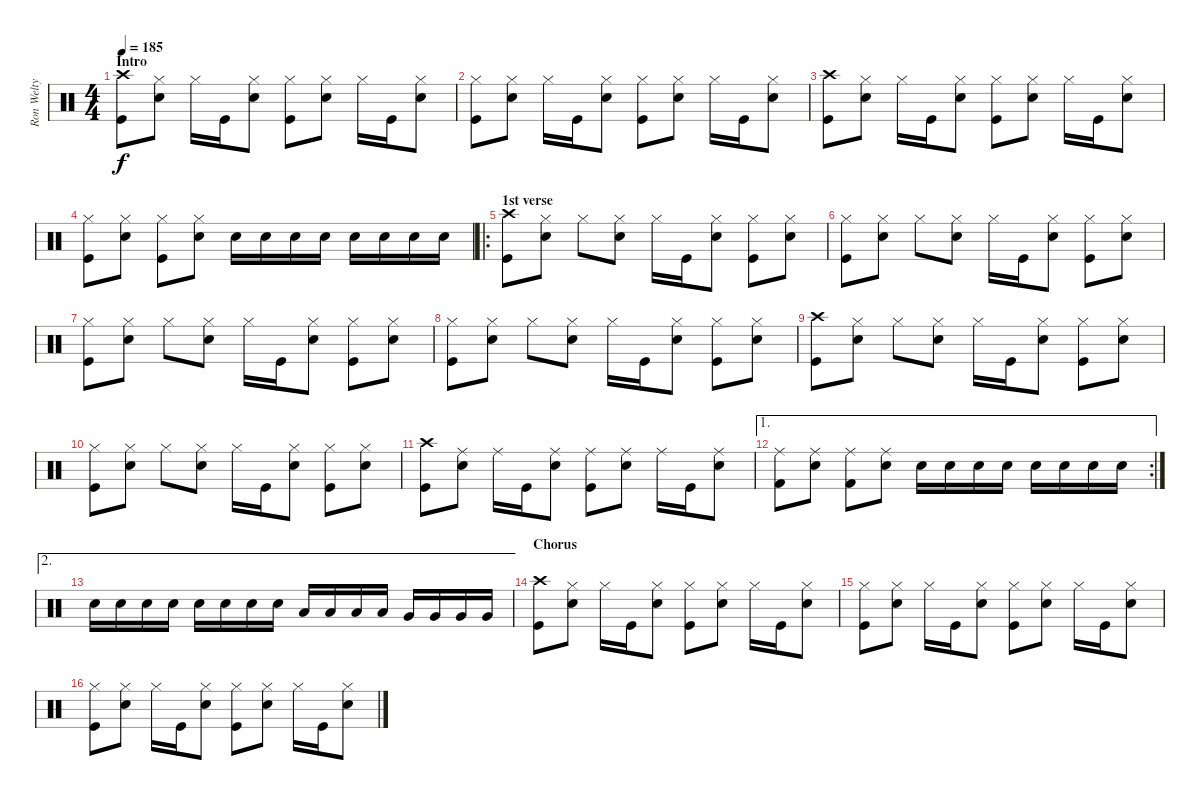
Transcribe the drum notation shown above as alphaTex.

\track ("Ron Welty" "Ron Welty") {instrument percussion}
\staff {score}
\articulation defaults
\ts (4 4)
\section ("" "Intro")
\tempo 185
\clef neutral
\ks c
("Crash high (hit)" "Kick (hit)").8{dy f} ("Hi-Hat (closed)" "Electric Snare (hit)").8 "Hi-Hat (closed)".16 "Kick (hit)".16 ("Hi-Hat (closed)" "Electric Snare (hit)").8 ("Hi-Hat (closed)" "Kick (hit)").8 ("Hi-Hat (closed)" "Electric Snare (hit)").8 "Hi-Hat (closed)".16 "Kick (hit)".16 ("Hi-Hat (closed)" "Electric Snare (hit)").8 |
("Hi-Hat (closed)" "Kick (hit)").8 ("Hi-Hat (closed)" "Electric Snare (hit)").8 "Hi-Hat (closed)".16 "Kick (hit)".16 ("Hi-Hat (closed)" "Electric Snare (hit)").8 ("Hi-Hat (closed)" "Kick (hit)").8 ("Hi-Hat (closed)" "Electric Snare (hit)").8 "Hi-Hat (closed)".16 "Kick (hit)".16 ("Hi-Hat (closed)" "Electric Snare (hit)").8 |
("Crash high (hit)" "Kick (hit)").8 ("Hi-Hat (closed)" "Electric Snare (hit)").8 "Hi-Hat (closed)".16 "Kick (hit)".16 ("Hi-Hat (closed)" "Electric Snare (hit)").8 ("Hi-Hat (closed)" "Kick (hit)").8 ("Hi-Hat (closed)" "Electric Snare (hit)").8 "Hi-Hat (closed)".16 "Kick (hit)".16 ("Hi-Hat (closed)" "Electric Snare (hit)").8 |
("Hi-Hat (closed)" "Kick (hit)").8 ("Hi-Hat (closed)" "Electric Snare (hit)").8 ("Hi-Hat (closed)" "Kick (hit)").8 ("Hi-Hat (closed)" "Electric Snare (hit)").8 "Electric Snare (hit)".16 "Electric Snare (hit)".16 "Electric Snare (hit)".16 "Electric Snare (hit)".16 "Electric Snare (hit)".16 "Electric Snare (hit)".16 "Electric Snare (hit)".16 "Electric Snare (hit)".16 |
\ro
\section ("" "1st verse")
("Crash high (hit)" "Kick (hit)").8 ("Hi-Hat (closed)" "Electric Snare (hit)").8 "Hi-Hat (closed)".8 ("Hi-Hat (closed)" "Electric Snare (hit)").8 "Hi-Hat (closed)".16 "Kick (hit)".16 ("Hi-Hat (closed)" "Electric Snare (hit)").8 ("Hi-Hat (closed)" "Kick (hit)").8 ("Hi-Hat (closed)" "Electric Snare (hit)").8 |
("Hi-Hat (closed)" "Kick (hit)").8 ("Hi-Hat (closed)" "Electric Snare (hit)").8 "Hi-Hat (closed)".8 ("Hi-Hat (closed)" "Electric Snare (hit)").8 "Hi-Hat (closed)".16 "Kick (hit)".16 ("Hi-Hat (closed)" "Electric Snare (hit)").8 ("Hi-Hat (closed)" "Kick (hit)").8 ("Hi-Hat (closed)" "Electric Snare (hit)").8 |
("Hi-Hat (closed)" "Kick (hit)").8 ("Hi-Hat (closed)" "Electric Snare (hit)").8 "Hi-Hat (closed)".8 ("Hi-Hat (closed)" "Electric Snare (hit)").8 "Hi-Hat (closed)".16 "Kick (hit)".16 ("Hi-Hat (closed)" "Electric Snare (hit)").8 ("Hi-Hat (closed)" "Kick (hit)").8 ("Hi-Hat (closed)" "Electric Snare (hit)").8 |
("Hi-Hat (closed)" "Kick (hit)").8 ("Hi-Hat (closed)" "Electric Snare (hit)").8 "Hi-Hat (closed)".8 ("Hi-Hat (closed)" "Electric Snare (hit)").8 "Hi-Hat (closed)".16 "Kick (hit)".16 ("Hi-Hat (closed)" "Electric Snare (hit)").8 ("Hi-Hat (closed)" "Kick (hit)").8 ("Hi-Hat (closed)" "Electric Snare (hit)").8 |
("Crash high (hit)" "Kick (hit)").8 ("Hi-Hat (closed)" "Electric Snare (hit)").8 "Hi-Hat (closed)".8 ("Hi-Hat (closed)" "Electric Snare (hit)").8 "Hi-Hat (closed)".16 "Kick (hit)".16 ("Hi-Hat (closed)" "Electric Snare (hit)").8 ("Hi-Hat (closed)" "Kick (hit)").8 ("Hi-Hat (closed)" "Electric Snare (hit)").8 |
("Hi-Hat (closed)" "Kick (hit)").8 ("Hi-Hat (closed)" "Electric Snare (hit)").8 "Hi-Hat (closed)".8 ("Hi-Hat (closed)" "Electric Snare (hit)").8 "Hi-Hat (closed)".16 "Kick (hit)".16 ("Hi-Hat (closed)" "Electric Snare (hit)").8 ("Hi-Hat (closed)" "Kick (hit)").8 ("Hi-Hat (closed)" "Electric Snare (hit)").8 |
("Crash high (hit)" "Kick (hit)").8 ("Ride (middle)" "Electric Snare (hit)").8 "Ride (middle)".16 "Kick (hit)".16 ("Ride (middle)" "Electric Snare (hit)").8 ("Ride (middle)" "Kick (hit)").8 ("Ride (middle)" "Electric Snare (hit)").8 "Ride (middle)".16 "Kick (hit)".16 ("Ride (middle)" "Electric Snare (hit)").8 |
\ae 1
\rc 2
("Ride (middle)" "Kick (hit) 2").8 ("Ride (middle)" "Electric Snare (hit)").8 ("Ride (middle)" "Kick (hit) 2").8 ("Ride (middle)" "Electric Snare (hit)").8 "Electric Snare (hit)".16 "Electric Snare (hit)".16 "Electric Snare (hit)".16 "Electric Snare (hit)".16 "Electric Snare (hit)".16 "Electric Snare (hit)".16 "Electric Snare (hit)".16 "Electric Snare (hit)".16 |
\ae 2 "Electric Snare (hit)".16 "Electric Snare (hit)".16 "Electric Snare (hit)".16 "Electric Snare (hit)".16 "Electric Snare (hit)".16 "Electric Snare (hit)".16 "Electric Snare (hit)".16 "Electric Snare (hit)".16 "Low Tom (hit)".16 "Low Tom (hit)".16 "Low Tom (hit)".16 "Low Tom (hit)".16 "Very Low Tom (hit)".16 "Very Low Tom (hit)".16 "Very Low Tom (hit)".16 "Very Low Tom (hit)".16
|
\section ("" "Chorus")
("Crash high (hit)" "Kick (hit)").8 ("Hi-Hat (closed)" "Electric Snare (hit)").8 "Hi-Hat (closed)".16 "Kick (hit)".16 ("Hi-Hat (closed)" "Electric Snare (hit)").8 ("Hi-Hat (closed)" "Kick (hit)").8 ("Hi-Hat (closed)" "Electric Snare (hit)").8 "Hi-Hat (closed)".16 "Kick (hit)".16 ("Hi-Hat (closed)" "Electric Snare (hit)").8 |
("Hi-Hat (closed)" "Kick (hit)").8 ("Hi-Hat (closed)" "Electric Snare (hit)").8 "Hi-Hat (closed)".16 "Kick (hit)".16 ("Hi-Hat (closed)" "Electric Snare (hit)").8 ("Hi-Hat (closed)" "Kick (hit)").8 ("Hi-Hat (closed)" "Electric Snare (hit)").8 "Hi-Hat (closed)".16 "Kick (hit)".16 ("Hi-Hat (closed)" "Electric Snare (hit)").8 |
("Hi-Hat (closed)" "Kick (hit)").8 ("Hi-Hat (closed)" "Electric Snare (hit)").8 "Hi-Hat (closed)".16 "Kick (hit)".16 ("Hi-Hat (closed)" "Electric Snare (hit)").8 ("Hi-Hat (closed)" "Kick (hit)").8 ("Hi-Hat (closed)" "Electric Snare (hit)").8 "Hi-Hat (closed)".16 "Kick (hit)".16 ("Hi-Hat (closed)" "Electric Snare (hit)").8
